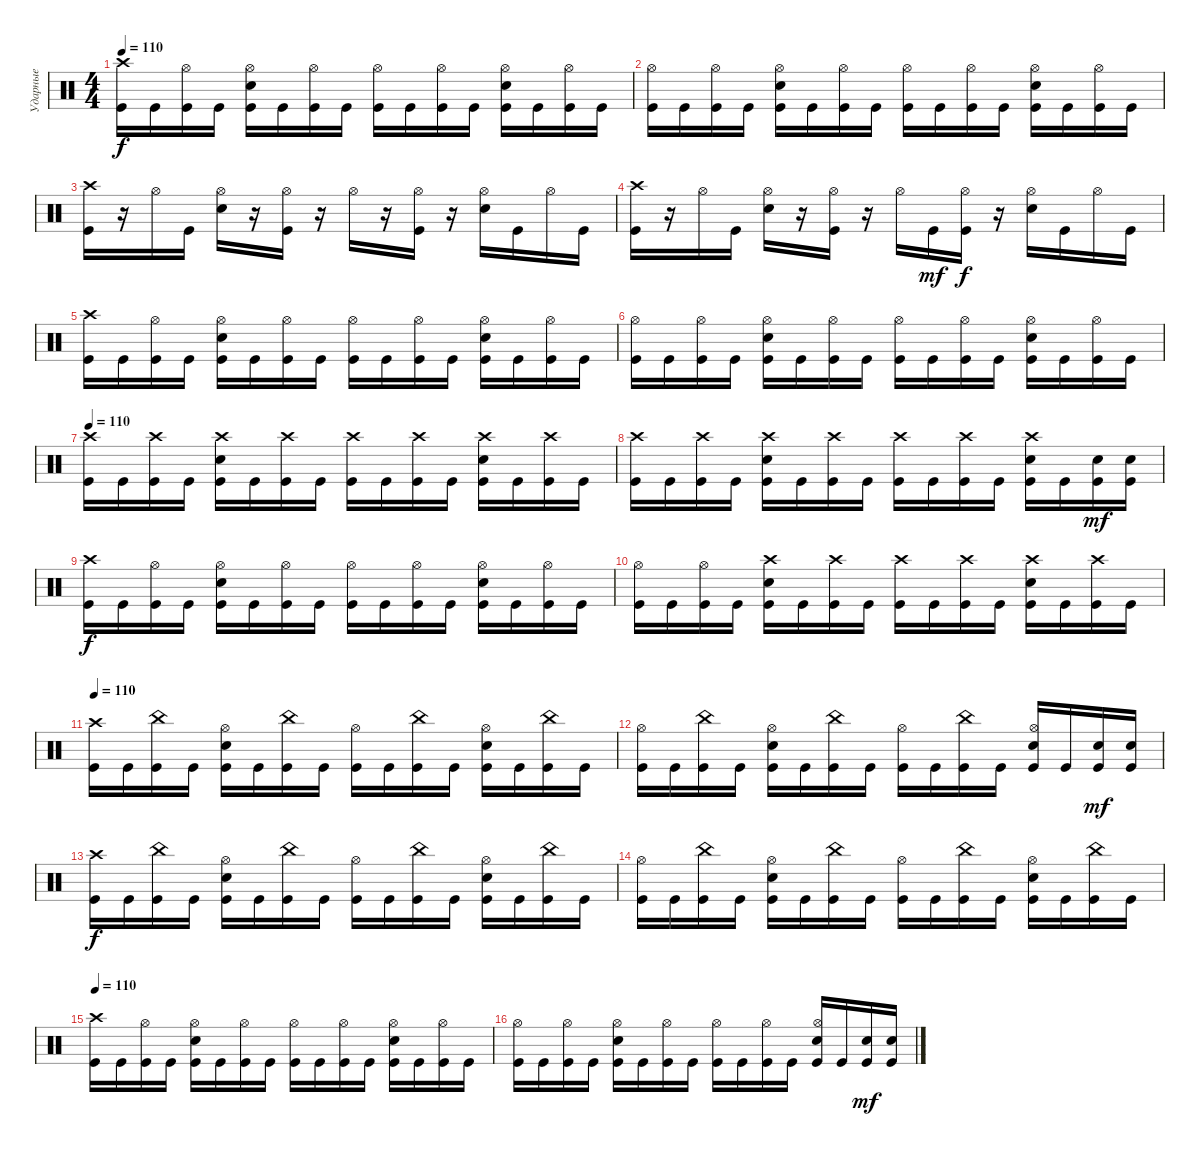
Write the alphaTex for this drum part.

\track ("Ударные" "Ударные") {instrument percussion}
\staff {score}
\articulation defaults
\ts (4 4)
\tempo 110
\clef neutral
\ks c
("Crash high (hit)" "Kick (hit)").16{dy f} "Kick (hit)".16 ("Hi-Hat (open)" "Kick (hit)").16 "Kick (hit)".16 ("Hi-Hat (open)" "Snare (hit) 2" "Kick (hit)").16 "Kick (hit)".16 ("Hi-Hat (open)" "Kick (hit)").16 "Kick (hit)".16 ("Hi-Hat (open)" "Kick (hit)").16 "Kick (hit)".16 ("Hi-Hat (open)" "Kick (hit)").16 "Kick (hit)".16 ("Hi-Hat (open)" "Snare (hit) 2" "Kick (hit)").16 "Kick (hit)".16 ("Hi-Hat (open)" "Kick (hit)").16 "Kick (hit)".16 |
("Hi-Hat (open)" "Kick (hit)").16 "Kick (hit)".16 ("Hi-Hat (open)" "Kick (hit)").16 "Kick (hit)".16 ("Hi-Hat (open)" "Snare (hit) 2" "Kick (hit)").16 "Kick (hit)".16 ("Hi-Hat (open)" "Kick (hit)").16 "Kick (hit)".16 ("Hi-Hat (open)" "Kick (hit)").16 "Kick (hit)".16 ("Hi-Hat (open)" "Kick (hit)").16 "Kick (hit)".16 ("Hi-Hat (open)" "Snare (hit) 2" "Kick (hit)").16 "Kick (hit)".16 ("Hi-Hat (open)" "Kick (hit)").16 "Kick (hit)".16 |
("Crash high (hit)" "Kick (hit)").16 r.16 "Hi-Hat (open)".16 "Kick (hit)".16 ("Hi-Hat (open)" "Snare (hit) 2").16 r.16 ("Hi-Hat (open)" "Kick (hit)").16 r.16 "Hi-Hat (open)".16 r.16 ("Hi-Hat (open)" "Kick (hit)").16 r.16 ("Hi-Hat (open)" "Snare (hit) 2").16 "Kick (hit)".16 "Hi-Hat (open)".16 "Kick (hit)".16 |
("Crash high (hit)" "Kick (hit)").16 r.16 "Hi-Hat (open)".16 "Kick (hit)".16 ("Hi-Hat (open)" "Snare (hit) 2").16 r.16 ("Hi-Hat (open)" "Kick (hit)").16 r.16 "Hi-Hat (open)".16 "Kick (hit)".16{dy mf} ("Hi-Hat (open)" "Kick (hit)").16{dy f} r.16 ("Hi-Hat (open)" "Snare (hit) 2").16 "Kick (hit)".16 "Hi-Hat (open)".16 "Kick (hit)".16 |
("Crash high (hit)" "Kick (hit)").16 "Kick (hit)".16 ("Hi-Hat (open)" "Kick (hit)").16 "Kick (hit)".16 ("Hi-Hat (open)" "Snare (hit) 2" "Kick (hit)").16 "Kick (hit)".16 ("Hi-Hat (open)" "Kick (hit)").16 "Kick (hit)".16 ("Hi-Hat (open)" "Kick (hit)").16 "Kick (hit)".16 ("Hi-Hat (open)" "Kick (hit)").16 "Kick (hit)".16 ("Hi-Hat (open)" "Snare (hit) 2" "Kick (hit)").16 "Kick (hit)".16 ("Hi-Hat (open)" "Kick (hit)").16 "Kick (hit)".16 |
("Hi-Hat (open)" "Kick (hit)").16 "Kick (hit)".16 ("Hi-Hat (open)" "Kick (hit)").16 "Kick (hit)".16 ("Hi-Hat (open)" "Snare (hit) 2" "Kick (hit)").16 "Kick (hit)".16 ("Hi-Hat (open)" "Kick (hit)").16 "Kick (hit)".16 ("Hi-Hat (open)" "Kick (hit)").16 "Kick (hit)".16 ("Hi-Hat (open)" "Kick (hit)").16 "Kick (hit)".16 ("Hi-Hat (open)" "Snare (hit) 2" "Kick (hit)").16 "Kick (hit)".16 ("Hi-Hat (open)" "Kick (hit)").16 "Kick (hit)".16 |
\tempo 110
("Crash high (hit)" "Kick (hit)").16 "Kick (hit)".16 ("Crash high (hit)" "Kick (hit)").16 "Kick (hit)".16 ("Crash high (hit)" "Snare (hit) 2" "Kick (hit)").16 "Kick (hit)".16 ("Crash high (hit)" "Kick (hit)").16 "Kick (hit)".16 ("Crash high (hit)" "Kick (hit)").16 "Kick (hit)".16 ("Crash high (hit)" "Kick (hit)").16 "Kick (hit)".16 ("Crash high (hit)" "Snare (hit) 2" "Kick (hit)").16 "Kick (hit)".16 ("Crash high (hit)" "Kick (hit)").16 "Kick (hit)".16 |
("Crash high (hit)" "Kick (hit)").16 "Kick (hit)".16 ("Crash high (hit)" "Kick (hit)").16 "Kick (hit)".16 ("Crash high (hit)" "Snare (hit) 2" "Kick (hit)").16 "Kick (hit)".16 ("Crash high (hit)" "Kick (hit)").16 "Kick (hit)".16 ("Crash high (hit)" "Kick (hit)").16 "Kick (hit)".16 ("Crash high (hit)" "Kick (hit)").16 "Kick (hit)".16 ("Crash high (hit)" "Snare (hit) 2" "Kick (hit)").16 "Kick (hit)".16 ("Snare (hit) 2" "Kick (hit)").16{dy mf} ("Snare (hit) 2" "Kick (hit)").16 |
("Crash high (hit)" "Kick (hit)").16{dy f} "Kick (hit)".16 ("Hi-Hat (open)" "Kick (hit)").16 "Kick (hit)".16 ("Hi-Hat (open)" "Snare (hit) 2" "Kick (hit)").16 "Kick (hit)".16 ("Hi-Hat (open)" "Kick (hit)").16 "Kick (hit)".16 ("Hi-Hat (open)" "Kick (hit)").16 "Kick (hit)".16 ("Hi-Hat (open)" "Kick (hit)").16 "Kick (hit)".16 ("Hi-Hat (open)" "Snare (hit) 2" "Kick (hit)").16 "Kick (hit)".16 ("Hi-Hat (open)" "Kick (hit)").16 "Kick (hit)".16 |
("Hi-Hat (open)" "Kick (hit)").16 "Kick (hit)".16 ("Hi-Hat (open)" "Kick (hit)").16 "Kick (hit)".16 ("Crash high (hit)" "Snare (hit) 2" "Kick (hit)").16 "Kick (hit)".16 ("Crash high (hit)" "Kick (hit)").16 "Kick (hit)".16 ("Crash high (hit)" "Kick (hit)").16 "Kick (hit)".16 ("Crash high (hit)" "Kick (hit)").16 "Kick (hit)".16 ("Crash high (hit)" "Snare (hit) 2" "Kick (hit)").16 "Kick (hit)".16 ("Crash high (hit)" "Kick (hit)").16 "Kick (hit)".16 |
\tempo 110
("Crash high (hit)" "Kick (hit)").16 "Kick (hit)".16 ("China (hit)" "Kick (hit)").16 "Kick (hit)".16 ("Hi-Hat (open)" "Snare (hit) 2" "Kick (hit)").16 "Kick (hit)".16 ("China (hit)" "Kick (hit)").16 "Kick (hit)".16 ("Hi-Hat (open)" "Kick (hit)").16 "Kick (hit)".16 ("China (hit)" "Kick (hit)").16 "Kick (hit)".16 ("Hi-Hat (open)" "Snare (hit) 2" "Kick (hit)").16 "Kick (hit)".16 ("China (hit)" "Kick (hit)").16 "Kick (hit)".16 |
("Hi-Hat (open)" "Kick (hit)").16 "Kick (hit)".16 ("China (hit)" "Kick (hit)").16 "Kick (hit)".16 ("Hi-Hat (open)" "Snare (hit) 2" "Kick (hit)").16 "Kick (hit)".16 ("China (hit)" "Kick (hit)").16 "Kick (hit)".16 ("Hi-Hat (open)" "Kick (hit)").16 "Kick (hit)".16 ("China (hit)" "Kick (hit)").16 "Kick (hit)".16 ("Hi-Hat (open)" "Snare (hit) 2" "Kick (hit)").16 "Kick (hit)".16 ("Snare (hit) 2" "Kick (hit)").16{dy mf} ("Snare (hit) 2" "Kick (hit)").16 |
("Crash high (hit)" "Kick (hit)").16{dy f} "Kick (hit)".16 ("China (hit)" "Kick (hit)").16 "Kick (hit)".16 ("Hi-Hat (open)" "Snare (hit) 2" "Kick (hit)").16 "Kick (hit)".16 ("China (hit)" "Kick (hit)").16 "Kick (hit)".16 ("Hi-Hat (open)" "Kick (hit)").16 "Kick (hit)".16 ("China (hit)" "Kick (hit)").16 "Kick (hit)".16 ("Hi-Hat (open)" "Snare (hit) 2" "Kick (hit)").16 "Kick (hit)".16 ("China (hit)" "Kick (hit)").16 "Kick (hit)".16 |
("Hi-Hat (open)" "Kick (hit)").16 "Kick (hit)".16 ("China (hit)" "Kick (hit)").16 "Kick (hit)".16 ("Hi-Hat (open)" "Snare (hit) 2" "Kick (hit)").16 "Kick (hit)".16 ("China (hit)" "Kick (hit)").16 "Kick (hit)".16 ("Hi-Hat (open)" "Kick (hit)").16 "Kick (hit)".16 ("China (hit)" "Kick (hit)").16 "Kick (hit)".16 ("Hi-Hat (open)" "Snare (hit) 2" "Kick (hit)").16 "Kick (hit)".16 ("China (hit)" "Kick (hit)").16 "Kick (hit)".16 |
\tempo 110
("Crash high (hit)" "Kick (hit)").16 "Kick (hit)".16 ("Hi-Hat (open)" "Kick (hit)").16 "Kick (hit)".16 ("Hi-Hat (open)" "Snare (hit) 2" "Kick (hit)").16 "Kick (hit)".16 ("Hi-Hat (open)" "Kick (hit)").16 "Kick (hit)".16 ("Hi-Hat (open)" "Kick (hit)").16 "Kick (hit)".16 ("Hi-Hat (open)" "Kick (hit)").16 "Kick (hit)".16 ("Hi-Hat (open)" "Snare (hit) 2" "Kick (hit)").16 "Kick (hit)".16 ("Hi-Hat (open)" "Kick (hit)").16 "Kick (hit)".16 |
("Hi-Hat (open)" "Kick (hit)").16 "Kick (hit)".16 ("Hi-Hat (open)" "Kick (hit)").16 "Kick (hit)".16 ("Hi-Hat (open)" "Snare (hit) 2" "Kick (hit)").16 "Kick (hit)".16 ("Hi-Hat (open)" "Kick (hit)").16 "Kick (hit)".16 ("Hi-Hat (open)" "Kick (hit)").16 "Kick (hit)".16 ("Hi-Hat (open)" "Kick (hit)").16 "Kick (hit)".16 ("Hi-Hat (open)" "Snare (hit) 2" "Kick (hit)").16 "Kick (hit)".16 ("Snare (hit) 2" "Kick (hit)").16{dy mf} ("Snare (hit) 2" "Kick (hit)").16
